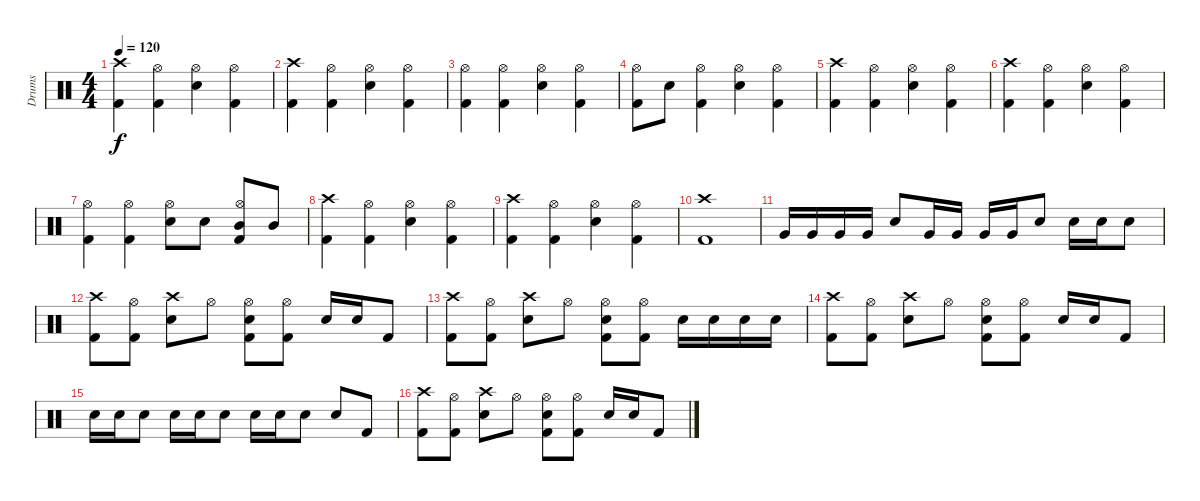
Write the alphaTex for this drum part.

\track ("Drums" "Drums") {instrument percussion}
\staff {score}
\articulation defaults
\ts (4 4)
\tempo 120
\clef neutral
\ks c
("Crash high (hit)" "Kick (hit) 2").4{dy f} ("Hi-Hat (open)" "Kick (hit) 2").4 ("Hi-Hat (open)" "Snare (hit) 2").4 ("Hi-Hat (open)" "Kick (hit) 2").4 |
("Crash high (hit)" "Kick (hit) 2").4 ("Hi-Hat (open)" "Kick (hit) 2").4 ("Hi-Hat (open)" "Snare (hit) 2").4 ("Hi-Hat (open)" "Kick (hit) 2").4 |
("Hi-Hat (open)" "Kick (hit) 2").4 ("Hi-Hat (open)" "Kick (hit) 2").4 ("Hi-Hat (open)" "Snare (hit) 2").4 ("Hi-Hat (open)" "Kick (hit) 2").4 |
("Hi-Hat (open)" "Kick (hit) 2").8 "Snare (hit) 2".8 ("Hi-Hat (open)" "Kick (hit) 2").4 ("Hi-Hat (open)" "Snare (hit) 2").4 ("Hi-Hat (open)" "Kick (hit) 2").4 |
("Crash high (hit)" "Kick (hit) 2").4 ("Hi-Hat (open)" "Kick (hit) 2").4 ("Hi-Hat (open)" "Snare (hit) 2").4 ("Hi-Hat (open)" "Kick (hit) 2").4 |
("Crash high (hit)" "Kick (hit) 2").4 ("Hi-Hat (open)" "Kick (hit) 2").4 ("Hi-Hat (open)" "Snare (hit) 2").4 ("Hi-Hat (open)" "Kick (hit) 2").4 |
("Hi-Hat (open)" "Kick (hit) 2").4 ("Hi-Hat (open)" "Kick (hit) 2").4 ("Hi-Hat (open)" "Snare (hit) 2").8 "Snare (hit) 2".8 ("Hi-Hat (open)" "Mid Tom (hit)" "Kick (hit) 2").8 "Mid Tom (hit)".8 |
("Crash high (hit)" "Kick (hit) 2").4 ("Hi-Hat (open)" "Kick (hit) 2").4 ("Hi-Hat (open)" "Snare (hit) 2").4 ("Hi-Hat (open)" "Kick (hit) 2").4 |
("Crash high (hit)" "Kick (hit) 2").4 ("Hi-Hat (open)" "Kick (hit) 2").4 ("Hi-Hat (open)" "Snare (hit) 2").4 ("Hi-Hat (open)" "Kick (hit) 2").4 |
("Crash high (hit)" "Kick (hit) 2").1 |
"Very Low Tom (hit)".16 "Very Low Tom (hit)".16 "Very Low Tom (hit)".16 "Very Low Tom (hit)".16 "Snare (hit) 2".8 "Very Low Tom (hit)".16 "Very Low Tom (hit)".16 "Very Low Tom (hit)".16 "Very Low Tom (hit)".16 "Snare (hit) 2".8 "Snare (hit) 2".16 "Snare (hit) 2".16 "Snare (hit) 2".8 |
("Crash high (hit)" "Kick (hit) 2").8 ("Hi-Hat (open)" "Kick (hit) 2").8 ("Crash high (hit)" "Snare (hit) 2").8 "Hi-Hat (open)".8 ("Hi-Hat (open)" "Snare (hit) 2" "Kick (hit) 2").8 ("Hi-Hat (open)" "Kick (hit) 2").8 "Snare (hit) 2".16 "Snare (hit) 2".16 "Kick (hit) 2".8 |
("Crash high (hit)" "Kick (hit) 2").8 ("Hi-Hat (open)" "Kick (hit) 2").8 ("Crash high (hit)" "Snare (hit) 2").8 "Hi-Hat (open)".8 ("Hi-Hat (open)" "Snare (hit) 2" "Kick (hit) 2").8 ("Hi-Hat (open)" "Kick (hit) 2").8 "Snare (hit) 2".16 "Snare (hit) 2".16 "Snare (hit) 2".16 "Snare (hit) 2".16 |
("Crash high (hit)" "Kick (hit) 2").8 ("Hi-Hat (open)" "Kick (hit) 2").8 ("Crash high (hit)" "Snare (hit) 2").8 "Hi-Hat (open)".8 ("Hi-Hat (open)" "Snare (hit) 2" "Kick (hit) 2").8 ("Hi-Hat (open)" "Kick (hit) 2").8 "Snare (hit) 2".16 "Snare (hit) 2".16 "Kick (hit) 2".8 |
"Snare (hit) 2".16 "Snare (hit) 2".16 "Snare (hit) 2".8 "Snare (hit) 2".16 "Snare (hit) 2".16 "Snare (hit) 2".8 "Snare (hit) 2".16 "Snare (hit) 2".16 "Snare (hit) 2".8 "Snare (hit) 2".8 "Kick (hit) 2".8 |
("Crash high (hit)" "Kick (hit) 2").8 ("Hi-Hat (open)" "Kick (hit) 2").8 ("Crash high (hit)" "Snare (hit) 2").8 "Hi-Hat (open)".8 ("Hi-Hat (open)" "Snare (hit) 2" "Kick (hit) 2").8 ("Hi-Hat (open)" "Kick (hit) 2").8 "Snare (hit) 2".16 "Snare (hit) 2".16 "Kick (hit) 2".8
